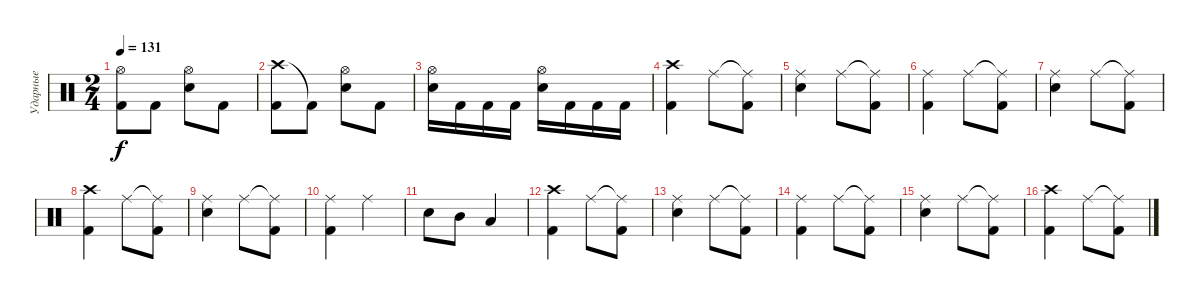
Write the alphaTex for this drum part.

\track ("Ударные" "Ударные") {instrument percussion}
\staff {score}
\articulation defaults
\ts (2 4)
\tempo 131
\clef neutral
\ks c
("Hi-Hat (open)" "Kick (hit) 2"{t}).8{dy f} "Kick (hit) 2".8 ("Hi-Hat (open)" "Electric Snare (hit)").8 "Kick (hit) 2".8 |
("Crash high (hit)" "Kick (hit) 2").8 "Kick (hit) 2"{t}.8 ("Hi-Hat (open)" "Electric Snare (hit)").8 "Kick (hit) 2".8 |
("Hi-Hat (open)" "Electric Snare (hit)").16 "Kick (hit) 2".16 "Kick (hit) 2".16 "Kick (hit) 2".16 ("Hi-Hat (open)" "Electric Snare (hit)").16 "Kick (hit) 2".16 "Kick (hit) 2".16 "Kick (hit) 2".16 |
("Crash high (hit)" "Kick (hit) 2").4 "Ride (middle)".8 ("Ride (middle)"{t} "Kick (hit) 2").8 |
("Ride (middle)" "Electric Snare (hit)").4 "Ride (middle)".8 ("Ride (middle)"{t} "Kick (hit) 2").8 |
("Ride (middle)" "Kick (hit) 2").4 "Ride (middle)".8 ("Ride (middle)"{t} "Kick (hit) 2").8 |
("Ride (middle)" "Electric Snare (hit)").4 "Ride (middle)".8 ("Ride (middle)"{t} "Kick (hit) 2").8 |
("Crash high (hit)" "Kick (hit) 2").4 "Ride (middle)".8 ("Ride (middle)"{t} "Kick (hit) 2").8 |
("Ride (middle)" "Electric Snare (hit)").4 "Ride (middle)".8 ("Ride (middle)"{t} "Kick (hit) 2").8 |
("Ride (middle)" "Kick (hit) 2").4 "Ride (middle)".4 |
"Electric Snare (hit)".8 "Mid Tom (hit)".8 "Low Tom (hit)".4 |
("Crash high (hit)" "Kick (hit) 2").4 "Ride (middle)".8 ("Ride (middle)"{t} "Kick (hit) 2").8 |
("Ride (middle)" "Electric Snare (hit)").4 "Ride (middle)".8 ("Ride (middle)"{t} "Kick (hit) 2").8 |
("Ride (middle)" "Kick (hit) 2").4 "Ride (middle)".8 ("Ride (middle)"{t} "Kick (hit) 2").8 |
("Ride (middle)" "Electric Snare (hit)").4 "Ride (middle)".8 ("Ride (middle)"{t} "Kick (hit) 2").8 |
("Crash high (hit)" "Kick (hit) 2").4 "Ride (middle)".8 ("Ride (middle)"{t} "Kick (hit) 2").8
